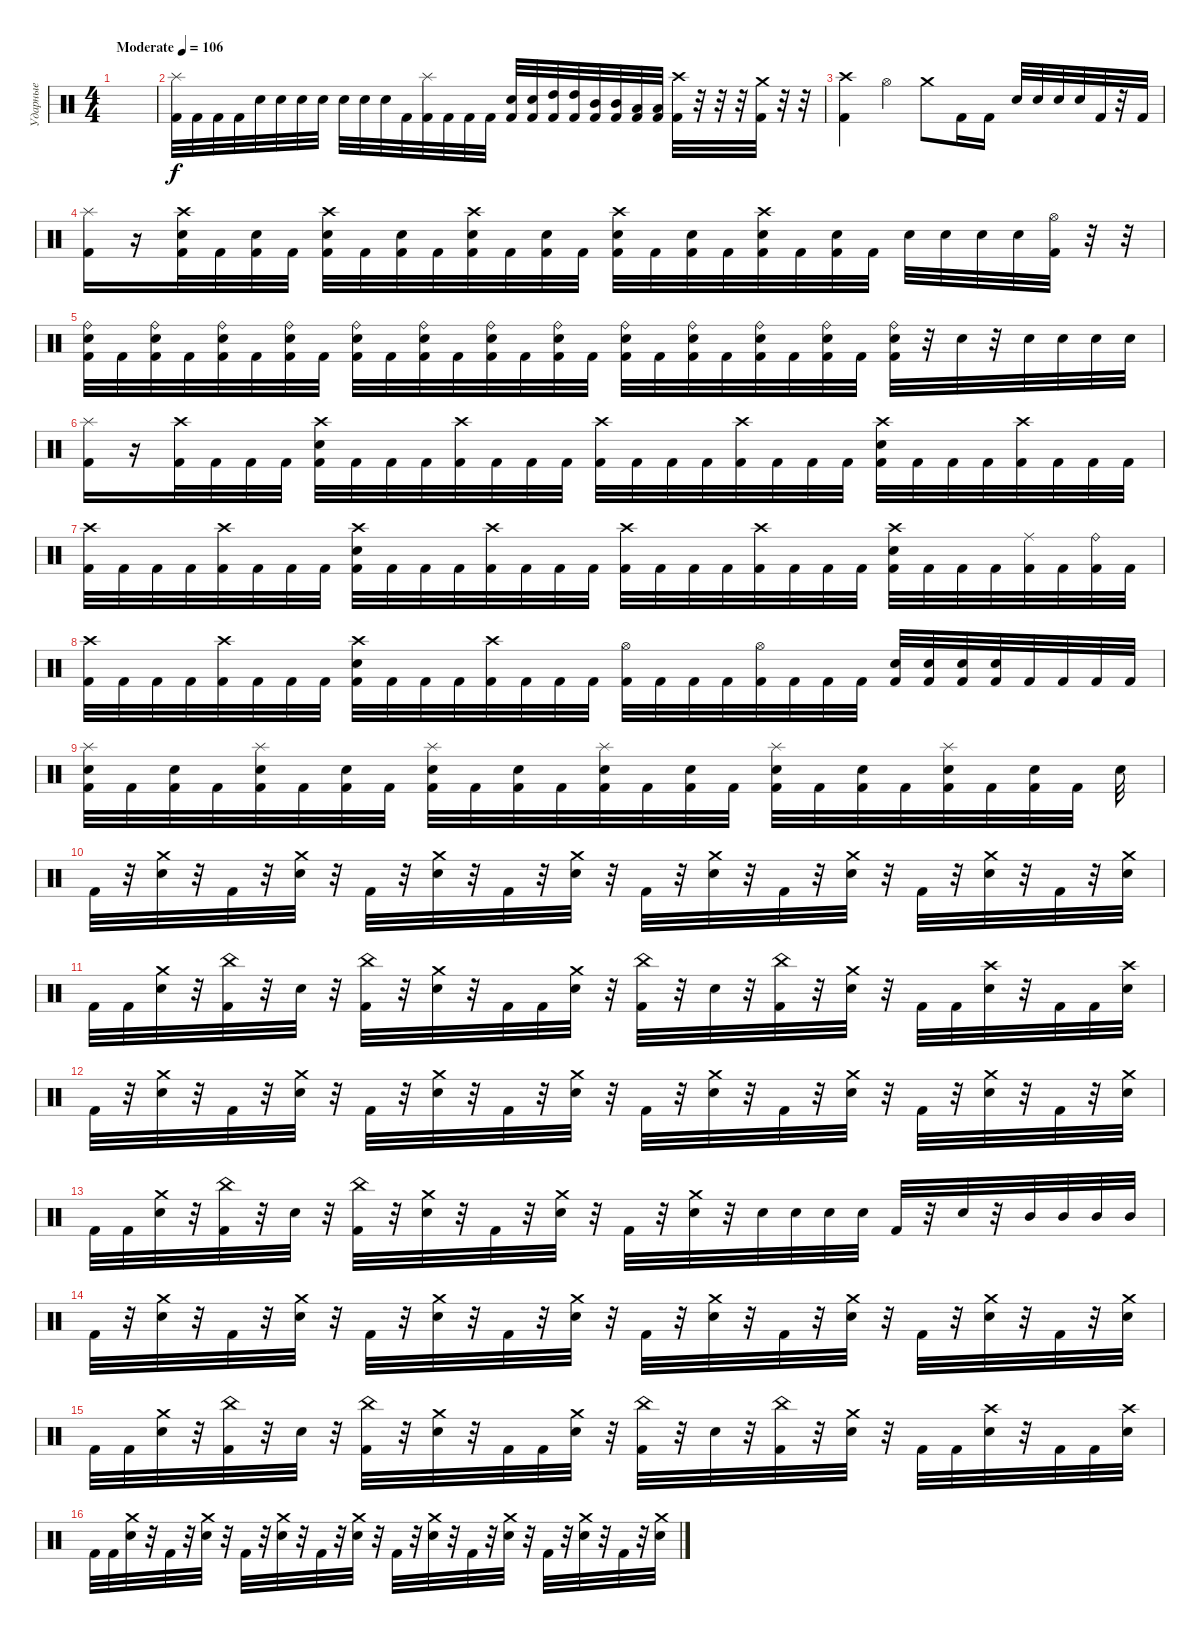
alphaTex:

\track ("Ударные" "Ударные") {instrument percussion}
\staff {score}
\articulation defaults
\ts (4 4)
\tempo (106 "Moderate")
\clef neutral
\ks c
|
("Splash (hit)" "Kick (hit) 2").32 "Kick (hit) 2".32 "Kick (hit) 2".32 "Kick (hit) 2".32 "Electric Snare (hit)".32 "Electric Snare (hit)".32 "Electric Snare (hit)".32 "Electric Snare (hit)".32 "Electric Snare (hit)".32 "Electric Snare (hit)".32 "Electric Snare (hit)".32 "Kick (hit) 2".32 ("Splash (hit)" "Kick (hit) 2").32 "Kick (hit) 2".32 "Kick (hit) 2".32 "Kick (hit) 2".32 ("Electric Snare (hit)" "Kick (hit) 2").32 ("Electric Snare (hit)" "Kick (hit) 2").32 ("High Tom (hit)" "Kick (hit) 2").32 ("High Tom (hit)" "Kick (hit) 2").32 ("Mid Tom (hit)" "Kick (hit) 2").32 ("Mid Tom (hit)" "Kick (hit) 2").32 ("Low Tom (hit)" "Kick (hit) 2").32 ("Low Tom (hit)" "Kick (hit) 2").32 ("Crash high (hit)" "Kick (hit) 2").32 r.32 r.32 r.32 ("Crash medium (hit)" "Kick (hit) 2").32 r.32 r.32 |
("Crash high (hit)" "Kick (hit) 2").4 "Hi-Hat (open)".4 "Crash medium (hit)".8 "Kick (hit) 2".16 "Kick (hit) 2".16 "Electric Snare (hit)".32 "Electric Snare (hit)".32 "Electric Snare (hit)".32 "Electric Snare (hit)".32 "Kick (hit) 2".32 r.32 "Kick (hit) 2".32 |
("Splash (hit)" "Kick (hit) 2").16 r.16 ("Crash high (hit)" "Kick (hit) 2" "Electric Snare (hit)").32 "Kick (hit) 2".32 ("Kick (hit) 2" "Electric Snare (hit)").32 "Kick (hit) 2".32 ("Crash high (hit)" "Kick (hit) 2" "Electric Snare (hit)").32 "Kick (hit) 2".32 ("Kick (hit) 2" "Electric Snare (hit)").32 "Kick (hit) 2".32 ("Crash high (hit)" "Kick (hit) 2" "Electric Snare (hit)").32 "Kick (hit) 2".32 ("Kick (hit) 2" "Electric Snare (hit)").32 "Kick (hit) 2".32 ("Crash high (hit)" "Kick (hit) 2" "Electric Snare (hit)").32 "Kick (hit) 2".32 ("Kick (hit) 2" "Electric Snare (hit)").32 "Kick (hit) 2".32 ("Crash high (hit)" "Kick (hit) 2" "Electric Snare (hit)").32 "Kick (hit) 2".32 ("Kick (hit) 2" "Electric Snare (hit)").32 "Kick (hit) 2".32 "Electric Snare (hit)".32 "Electric Snare (hit)".32 "Electric Snare (hit)".32 "Electric Snare (hit)".32 ("Hi-Hat (open)" "Kick (hit) 2").32 r.32 r.32 |
("Ride (bell)" "Kick (hit) 2" "Electric Snare (hit)").32 "Kick (hit) 2".32 ("Ride (bell)" "Kick (hit) 2" "Electric Snare (hit)").32 "Kick (hit) 2".32 ("Ride (bell)" "Kick (hit) 2" "Electric Snare (hit)").32 "Kick (hit) 2".32 ("Ride (bell)" "Kick (hit) 2" "Electric Snare (hit)").32 "Kick (hit) 2".32 ("Ride (bell)" "Kick (hit) 2" "Electric Snare (hit)").32 "Kick (hit) 2".32 ("Ride (bell)" "Kick (hit) 2" "Electric Snare (hit)").32 "Kick (hit) 2".32 ("Ride (bell)" "Kick (hit) 2" "Electric Snare (hit)").32 "Kick (hit) 2".32 ("Ride (bell)" "Kick (hit) 2" "Electric Snare (hit)").32 "Kick (hit) 2".32 ("Ride (bell)" "Kick (hit) 2" "Electric Snare (hit)").32 "Kick (hit) 2".32 ("Ride (bell)" "Kick (hit) 2" "Electric Snare (hit)").32 "Kick (hit) 2".32 ("Ride (bell)" "Kick (hit) 2" "Electric Snare (hit)").32 "Kick (hit) 2".32 ("Ride (bell)" "Kick (hit) 2" "Electric Snare (hit)").32 "Kick (hit) 2".32 ("Ride (bell)" "Kick (hit) 2" "Electric Snare (hit)").32 r.32 "Electric Snare (hit)".32 r.32 "Electric Snare (hit)".32 "Electric Snare (hit)".32 "Electric Snare (hit)".32 "Electric Snare (hit)".32 |
("Splash (hit)" "Kick (hit) 2").16 r.16 ("Crash high (hit)" "Kick (hit) 2").32 "Kick (hit) 2".32 "Kick (hit) 2".32 "Kick (hit) 2".32 ("Crash high (hit)" "Kick (hit) 2" "Electric Snare (hit)").32 "Kick (hit) 2".32 "Kick (hit) 2".32 "Kick (hit) 2".32 ("Crash high (hit)" "Kick (hit) 2").32 "Kick (hit) 2".32 "Kick (hit) 2".32 "Kick (hit) 2".32 ("Crash high (hit)" "Kick (hit) 2").32 "Kick (hit) 2".32 "Kick (hit) 2".32 "Kick (hit) 2".32 ("Crash high (hit)" "Kick (hit) 2").32 "Kick (hit) 2".32 "Kick (hit) 2".32 "Kick (hit) 2".32 ("Crash high (hit)" "Kick (hit) 2" "Electric Snare (hit)").32 "Kick (hit) 2".32 "Kick (hit) 2".32 "Kick (hit) 2".32 ("Crash high (hit)" "Kick (hit) 2").32 "Kick (hit) 2".32 "Kick (hit) 2".32 "Kick (hit) 2".32 |
("Crash high (hit)" "Kick (hit) 2").32 "Kick (hit) 2".32 "Kick (hit) 2".32 "Kick (hit) 2".32 ("Crash high (hit)" "Kick (hit) 2").32 "Kick (hit) 2".32 "Kick (hit) 2".32 "Kick (hit) 2".32 ("Crash high (hit)" "Kick (hit) 2" "Electric Snare (hit)").32 "Kick (hit) 2".32 "Kick (hit) 2".32 "Kick (hit) 2".32 ("Crash high (hit)" "Kick (hit) 2").32 "Kick (hit) 2".32 "Kick (hit) 2".32 "Kick (hit) 2".32 ("Crash high (hit)" "Kick (hit) 2").32 "Kick (hit) 2".32 "Kick (hit) 2".32 "Kick (hit) 2".32 ("Crash high (hit)" "Kick (hit) 2").32 "Kick (hit) 2".32 "Kick (hit) 2".32 "Kick (hit) 2".32 ("Crash high (hit)" "Kick (hit) 2" "Electric Snare (hit)").32 "Kick (hit) 2".32 "Kick (hit) 2".32 "Kick (hit) 2".32 ("Ride (middle)" "Kick (hit) 2").32 "Kick (hit) 2".32 ("Ride (bell)" "Kick (hit) 2").32 "Kick (hit) 2".32 |
("Crash high (hit)" "Kick (hit) 2").32 "Kick (hit) 2".32 "Kick (hit) 2".32 "Kick (hit) 2".32 ("Crash high (hit)" "Kick (hit) 2").32 "Kick (hit) 2".32 "Kick (hit) 2".32 "Kick (hit) 2".32 ("Crash high (hit)" "Kick (hit) 2" "Electric Snare (hit)").32 "Kick (hit) 2".32 "Kick (hit) 2".32 "Kick (hit) 2".32 ("Crash high (hit)" "Kick (hit) 2").32 "Kick (hit) 2".32 "Kick (hit) 2".32 "Kick (hit) 2".32 ("Hi-Hat (open)" "Kick (hit) 2").32 "Kick (hit) 2".32 "Kick (hit) 2".32 "Kick (hit) 2".32 ("Hi-Hat (open)" "Kick (hit) 2").32 "Kick (hit) 2".32 "Kick (hit) 2".32 "Kick (hit) 2".32 ("Kick (hit) 2" "Electric Snare (hit)").32 ("Kick (hit) 2" "Electric Snare (hit)").32 ("Kick (hit) 2" "Electric Snare (hit)").32 ("Kick (hit) 2" "Electric Snare (hit)").32 "Kick (hit) 2".32 "Kick (hit) 2".32 "Kick (hit) 2".32 "Kick (hit) 2".32 |
("Splash (hit)" "Kick (hit) 2" "Electric Snare (hit)").32 "Kick (hit) 2".32 ("Kick (hit) 2" "Electric Snare (hit)").32 "Kick (hit) 2".32 ("Splash (hit)" "Kick (hit) 2" "Electric Snare (hit)").32 "Kick (hit) 2".32 ("Kick (hit) 2" "Electric Snare (hit)").32 "Kick (hit) 2".32 ("Splash (hit)" "Kick (hit) 2" "Electric Snare (hit)").32 "Kick (hit) 2".32 ("Kick (hit) 2" "Electric Snare (hit)").32 "Kick (hit) 2".32 ("Splash (hit)" "Kick (hit) 2" "Electric Snare (hit)").32 "Kick (hit) 2".32 ("Kick (hit) 2" "Electric Snare (hit)").32 "Kick (hit) 2".32 ("Splash (hit)" "Kick (hit) 2" "Electric Snare (hit)").32 "Kick (hit) 2".32 ("Kick (hit) 2" "Electric Snare (hit)").32 "Kick (hit) 2".32 ("Splash (hit)" "Kick (hit) 2" "Electric Snare (hit)").32 "Kick (hit) 2".32 ("Kick (hit) 2" "Electric Snare (hit)").32 "Kick (hit) 2".32 "Electric Snare (hit)".32 |
"Kick (hit) 2".32 r.32 ("Crash medium (hit)" "Electric Snare (hit)").32 r.32 "Kick (hit) 2".32 r.32 ("Crash medium (hit)" "Electric Snare (hit)").32 r.32 "Kick (hit) 2".32 r.32 ("Crash medium (hit)" "Electric Snare (hit)").32 r.32 "Kick (hit) 2".32 r.32 ("Crash medium (hit)" "Electric Snare (hit)").32 r.32 "Kick (hit) 2".32 r.32 ("Crash medium (hit)" "Electric Snare (hit)").32 r.32 "Kick (hit) 2".32 r.32 ("Crash medium (hit)" "Electric Snare (hit)").32 r.32 "Kick (hit) 2".32 r.32 ("Crash medium (hit)" "Electric Snare (hit)").32 r.32 "Kick (hit) 2".32 r.32 ("Crash medium (hit)" "Electric Snare (hit)").32 |
"Kick (hit) 2".32 "Kick (hit) 2".32 ("Crash medium (hit)" "Electric Snare (hit)").32 r.32 ("China (hit)" "Kick (hit) 2").32 r.32 "Electric Snare (hit)".32 r.32 ("China (hit)" "Kick (hit) 2").32 r.32 ("Crash medium (hit)" "Electric Snare (hit)").32 r.32 "Kick (hit) 2".32 "Kick (hit) 2".32 ("Crash medium (hit)" "Electric Snare (hit)").32 r.32 ("China (hit)" "Kick (hit) 2").32 r.32 "Electric Snare (hit)".32 r.32 ("China (hit)" "Kick (hit) 2").32 r.32 ("Crash medium (hit)" "Electric Snare (hit)").32 r.32 "Kick (hit) 2".32 "Kick (hit) 2".32 ("Crash high (hit)" "Electric Snare (hit)").32 r.32 "Kick (hit) 2".32 "Kick (hit) 2".32 ("Crash high (hit)" "Electric Snare (hit)").32 |
"Kick (hit) 2".32 r.32 ("Crash medium (hit)" "Electric Snare (hit)").32 r.32 "Kick (hit) 2".32 r.32 ("Crash medium (hit)" "Electric Snare (hit)").32 r.32 "Kick (hit) 2".32 r.32 ("Crash medium (hit)" "Electric Snare (hit)").32 r.32 "Kick (hit) 2".32 r.32 ("Crash medium (hit)" "Electric Snare (hit)").32 r.32 "Kick (hit) 2".32 r.32 ("Crash medium (hit)" "Electric Snare (hit)").32 r.32 "Kick (hit) 2".32 r.32 ("Crash medium (hit)" "Electric Snare (hit)").32 r.32 "Kick (hit) 2".32 r.32 ("Crash medium (hit)" "Electric Snare (hit)").32 r.32 "Kick (hit) 2".32 r.32 ("Crash medium (hit)" "Electric Snare (hit)").32 |
"Kick (hit) 2".32 "Kick (hit) 2".32 ("Crash medium (hit)" "Electric Snare (hit)").32 r.32 ("China (hit)" "Kick (hit) 2").32 r.32 "Electric Snare (hit)".32 r.32 ("China (hit)" "Kick (hit) 2").32 r.32 ("Crash medium (hit)" "Electric Snare (hit)").32 r.32 "Kick (hit) 2".32 r.32 ("Crash medium (hit)" "Electric Snare (hit)").32 r.32 "Kick (hit) 2".32 r.32 ("Crash medium (hit)" "Electric Snare (hit)").32 r.32 "Electric Snare (hit)".32 "Electric Snare (hit)".32 "Electric Snare (hit)".32 "Electric Snare (hit)".32 "Kick (hit) 2".32 r.32 "Electric Snare (hit)".32 r.32 "Mid Tom (hit)".32 "Mid Tom (hit)".32 "Mid Tom (hit)".32 "Mid Tom (hit)".32 |
"Kick (hit) 2".32 r.32 ("Crash medium (hit)" "Electric Snare (hit)").32 r.32 "Kick (hit) 2".32 r.32 ("Crash medium (hit)" "Electric Snare (hit)").32 r.32 "Kick (hit) 2".32 r.32 ("Crash medium (hit)" "Electric Snare (hit)").32 r.32 "Kick (hit) 2".32 r.32 ("Crash medium (hit)" "Electric Snare (hit)").32 r.32 "Kick (hit) 2".32 r.32 ("Crash medium (hit)" "Electric Snare (hit)").32 r.32 "Kick (hit) 2".32 r.32 ("Crash medium (hit)" "Electric Snare (hit)").32 r.32 "Kick (hit) 2".32 r.32 ("Crash medium (hit)" "Electric Snare (hit)").32 r.32 "Kick (hit) 2".32 r.32 ("Crash medium (hit)" "Electric Snare (hit)").32 |
"Kick (hit) 2".32 "Kick (hit) 2".32 ("Crash medium (hit)" "Electric Snare (hit)").32 r.32 ("China (hit)" "Kick (hit) 2").32 r.32 "Electric Snare (hit)".32 r.32 ("China (hit)" "Kick (hit) 2").32 r.32 ("Crash medium (hit)" "Electric Snare (hit)").32 r.32 "Kick (hit) 2".32 "Kick (hit) 2".32 ("Crash medium (hit)" "Electric Snare (hit)").32 r.32 ("China (hit)" "Kick (hit) 2").32 r.32 "Electric Snare (hit)".32 r.32 ("China (hit)" "Kick (hit) 2").32 r.32 ("Crash medium (hit)" "Electric Snare (hit)").32 r.32 "Kick (hit) 2".32 "Kick (hit) 2".32 ("Crash high (hit)" "Electric Snare (hit)").32 r.32 "Kick (hit) 2".32 "Kick (hit) 2".32 ("Crash high (hit)" "Electric Snare (hit)").32 |
"Kick (hit) 2".32 "Kick (hit) 2".32 ("Crash medium (hit)" "Electric Snare (hit)").32 r.32 "Kick (hit) 2".32 r.32 ("Crash medium (hit)" "Electric Snare (hit)").32 r.32 "Kick (hit) 2".32 r.32 ("Crash medium (hit)" "Electric Snare (hit)").32 r.32 "Kick (hit) 2".32 r.32 ("Crash medium (hit)" "Electric Snare (hit)").32 r.32 "Kick (hit) 2".32 r.32 ("Crash medium (hit)" "Electric Snare (hit)").32 r.32 "Kick (hit) 2".32 r.32 ("Crash medium (hit)" "Electric Snare (hit)").32 r.32 "Kick (hit) 2".32 r.32 ("Crash medium (hit)" "Electric Snare (hit)").32 r.32 "Kick (hit) 2".32 r.32 ("Crash medium (hit)" "Electric Snare (hit)").32
